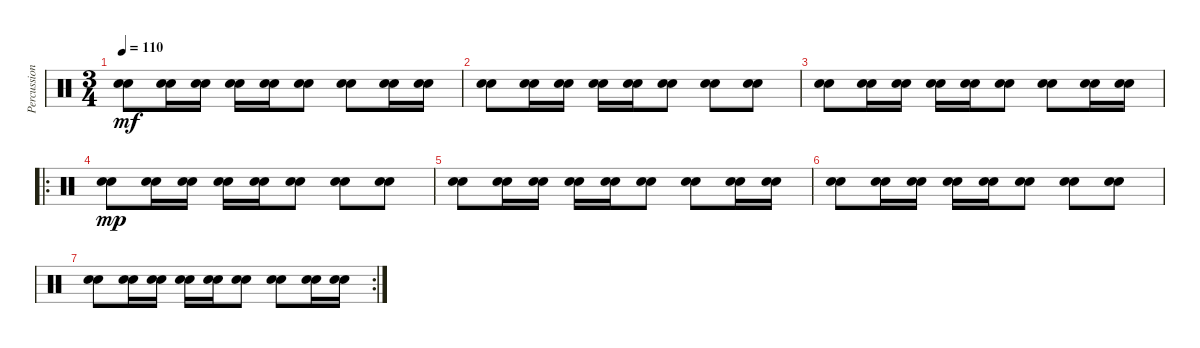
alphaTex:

\track ("Percussion" "Percussion") {instrument percussion}
\staff {score}
\articulation defaults
\ts (3 4)
\tempo 110
\clef neutral
\ks c
("Snare (hit) 2" "Electric Snare (hit)").8{dy mf} ("Snare (hit) 2" "Electric Snare (hit)").16 ("Snare (hit) 2" "Electric Snare (hit)").16 ("Snare (hit) 2" "Electric Snare (hit)").16 ("Snare (hit) 2" "Electric Snare (hit)").16 ("Snare (hit) 2" "Electric Snare (hit)").8 ("Snare (hit) 2" "Electric Snare (hit)").8 ("Snare (hit) 2" "Electric Snare (hit)").16 ("Snare (hit) 2" "Electric Snare (hit)").16 |
("Snare (hit) 2" "Electric Snare (hit)").8 ("Snare (hit) 2" "Electric Snare (hit)").16 ("Snare (hit) 2" "Electric Snare (hit)").16 ("Snare (hit) 2" "Electric Snare (hit)").16 ("Snare (hit) 2" "Electric Snare (hit)").16 ("Snare (hit) 2" "Electric Snare (hit)").8 ("Snare (hit) 2" "Electric Snare (hit)").8 ("Snare (hit) 2" "Electric Snare (hit)").8 |
("Snare (hit) 2" "Electric Snare (hit)").8 ("Snare (hit) 2" "Electric Snare (hit)").16 ("Snare (hit) 2" "Electric Snare (hit)").16 ("Snare (hit) 2" "Electric Snare (hit)").16 ("Snare (hit) 2" "Electric Snare (hit)").16 ("Snare (hit) 2" "Electric Snare (hit)").8 ("Snare (hit) 2" "Electric Snare (hit)").8 ("Snare (hit) 2" "Electric Snare (hit)").16 ("Snare (hit) 2" "Electric Snare (hit)").16 |
\ro
("Snare (hit) 2" "Electric Snare (hit)").8{dy mp} ("Snare (hit) 2" "Electric Snare (hit)").16 ("Snare (hit) 2" "Electric Snare (hit)").16 ("Snare (hit) 2" "Electric Snare (hit)").16 ("Snare (hit) 2" "Electric Snare (hit)").16 ("Snare (hit) 2" "Electric Snare (hit)").8 ("Snare (hit) 2" "Electric Snare (hit)").8 ("Snare (hit) 2" "Electric Snare (hit)").8 |
("Snare (hit) 2" "Electric Snare (hit)").8 ("Snare (hit) 2" "Electric Snare (hit)").16 ("Snare (hit) 2" "Electric Snare (hit)").16 ("Snare (hit) 2" "Electric Snare (hit)").16 ("Snare (hit) 2" "Electric Snare (hit)").16 ("Snare (hit) 2" "Electric Snare (hit)").8 ("Snare (hit) 2" "Electric Snare (hit)").8 ("Snare (hit) 2" "Electric Snare (hit)").16 ("Snare (hit) 2" "Electric Snare (hit)").16 |
("Snare (hit) 2" "Electric Snare (hit)").8 ("Snare (hit) 2" "Electric Snare (hit)").16 ("Snare (hit) 2" "Electric Snare (hit)").16 ("Snare (hit) 2" "Electric Snare (hit)").16 ("Snare (hit) 2" "Electric Snare (hit)").16 ("Snare (hit) 2" "Electric Snare (hit)").8 ("Snare (hit) 2" "Electric Snare (hit)").8 ("Snare (hit) 2" "Electric Snare (hit)").8 |
\rc 2
("Snare (hit) 2" "Electric Snare (hit)").8{volume 0} ("Snare (hit) 2" "Electric Snare (hit)").16 ("Snare (hit) 2" "Electric Snare (hit)").16 ("Snare (hit) 2" "Electric Snare (hit)").16 ("Snare (hit) 2" "Electric Snare (hit)").16 ("Snare (hit) 2" "Electric Snare (hit)").8 ("Snare (hit) 2" "Electric Snare (hit)").8 ("Snare (hit) 2" "Electric Snare (hit)").16 ("Snare (hit) 2" "Electric Snare (hit)").16
